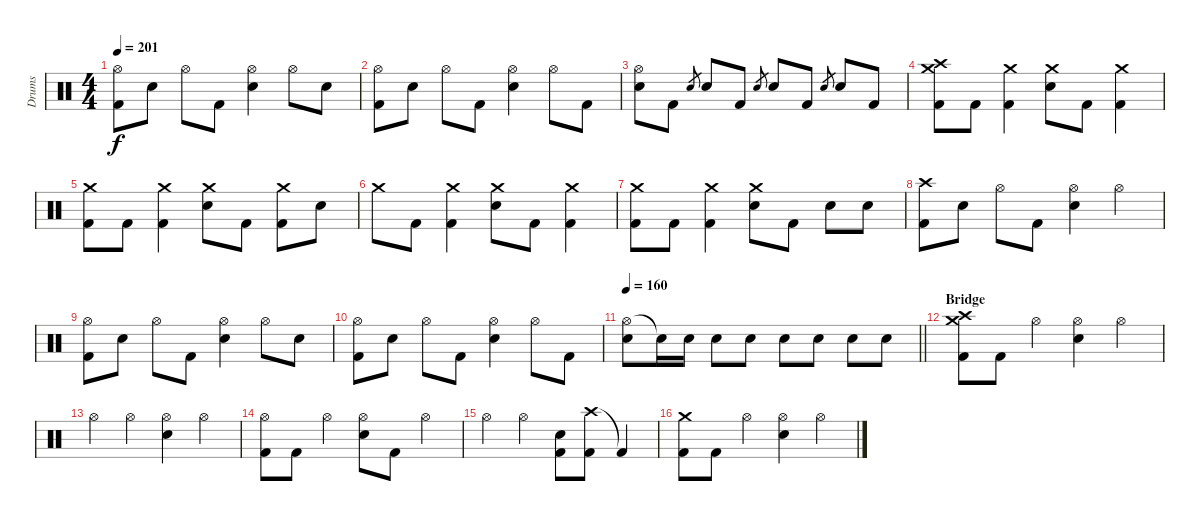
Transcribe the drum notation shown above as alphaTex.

\track ("Drums" "Drums") {instrument percussion}
\staff {score}
\articulation defaults
\ts (4 4)
\tempo 201
\clef neutral
\ks c
("Hi-Hat (open)" "Kick (hit) 2").8{dy f} "Electric Snare (hit)".8 "Hi-Hat (open)".8 "Kick (hit) 2".8 ("Hi-Hat (open)" "Electric Snare (hit)").4 "Hi-Hat (open)".8 "Electric Snare (hit)".8 |
("Hi-Hat (open)" "Kick (hit) 2").8 "Electric Snare (hit)".8 "Hi-Hat (open)".8 "Kick (hit) 2".8 ("Hi-Hat (open)" "Electric Snare (hit)").4 "Hi-Hat (open)".8 "Kick (hit) 2".8 |
("Hi-Hat (open)" "Electric Snare (hit)").8 "Kick (hit) 2".8 "Electric Snare (hit)".8{gr} "Electric Snare (hit)".8 "Kick (hit) 2".8 "Electric Snare (hit)".8{gr} "Electric Snare (hit)".8 "Kick (hit) 2".8 "Electric Snare (hit)".8{gr} "Electric Snare (hit)".8 "Kick (hit) 2".8 |
("Crash medium (hit)" "Crash high (hit)" "Kick (hit) 2").8 "Kick (hit) 2".8 ("Crash medium (hit)" "Kick (hit) 2").4 ("Crash medium (hit)" "Electric Snare (hit)").8 "Kick (hit) 2".8 ("Crash medium (hit)" "Kick (hit) 2").4 |
("Crash medium (hit)" "Kick (hit) 2").8 "Kick (hit) 2".8 ("Crash medium (hit)" "Kick (hit) 2").4 ("Crash medium (hit)" "Electric Snare (hit)").8 "Kick (hit) 2".8 ("Crash medium (hit)" "Kick (hit) 2").8 "Electric Snare (hit)".8 |
"Crash medium (hit)".8 "Kick (hit) 2".8 ("Crash medium (hit)" "Kick (hit) 2").4 ("Crash medium (hit)" "Electric Snare (hit)").8 "Kick (hit) 2".8 ("Crash medium (hit)" "Kick (hit) 2").4 |
("Crash medium (hit)" "Kick (hit) 2").8 "Kick (hit) 2".8 ("Crash medium (hit)" "Kick (hit) 2").4 ("Crash medium (hit)" "Electric Snare (hit)").8 "Kick (hit) 2".8 "Electric Snare (hit)".8 "Electric Snare (hit)".8 |
("Crash high (hit)" "Kick (hit) 2").8 "Electric Snare (hit)".8 "Hi-Hat (open)".8 "Kick (hit) 2".8 ("Hi-Hat (open)" "Electric Snare (hit)").4 "Hi-Hat (open)".4 |
("Hi-Hat (open)" "Kick (hit) 2").8 "Electric Snare (hit)".8 "Hi-Hat (open)".8 "Kick (hit) 2".8 ("Hi-Hat (open)" "Electric Snare (hit)").4 "Hi-Hat (open)".8 "Electric Snare (hit)".8 |
("Hi-Hat (open)" "Kick (hit) 2").8 "Electric Snare (hit)".8 "Hi-Hat (open)".8 "Kick (hit) 2".8 ("Hi-Hat (open)" "Electric Snare (hit)").4 "Hi-Hat (open)".8 "Kick (hit) 2".8 |
\tempo 160
\barLineRight lightlight
("Hi-Hat (open)" "Electric Snare (hit)").8 "Snare (hit)"{t}.16 "Electric Snare (hit)".16 "Electric Snare (hit)".8 "Electric Snare (hit)".8 "Electric Snare (hit)".8 "Electric Snare (hit)".8 "Electric Snare (hit)".8 "Electric Snare (hit)".8 |
\section ("" "Bridge")
("Crash medium (hit)" "Crash high (hit)" "Kick (hit) 2").8 "Kick (hit) 2".8 "Hi-Hat (open)".4 ("Hi-Hat (open)" "Electric Snare (hit)").4 "Hi-Hat (open)".4 |
"Hi-Hat (open)".4 "Hi-Hat (open)".4 ("Hi-Hat (open)" "Electric Snare (hit)").4 "Hi-Hat (open)".4 |
("Hi-Hat (open)" "Kick (hit) 2").8 "Kick (hit) 2".8 "Hi-Hat (open)".4 ("Hi-Hat (open)" "Electric Snare (hit)").8 "Kick (hit) 2".8 "Hi-Hat (open)".4 |
"Hi-Hat (open)".4 "Hi-Hat (open)".4 ("Electric Snare (hit)" "Kick (hit) 2").8 ("Crash high (hit)" "Kick (hit) 2").8 "Kick (hit) 2"{t}.4 |
("Crash medium (hit)" "Kick (hit) 2").8 "Kick (hit) 2".8 "Hi-Hat (open)".4 ("Hi-Hat (open)" "Electric Snare (hit)").4 "Hi-Hat (open)".4
